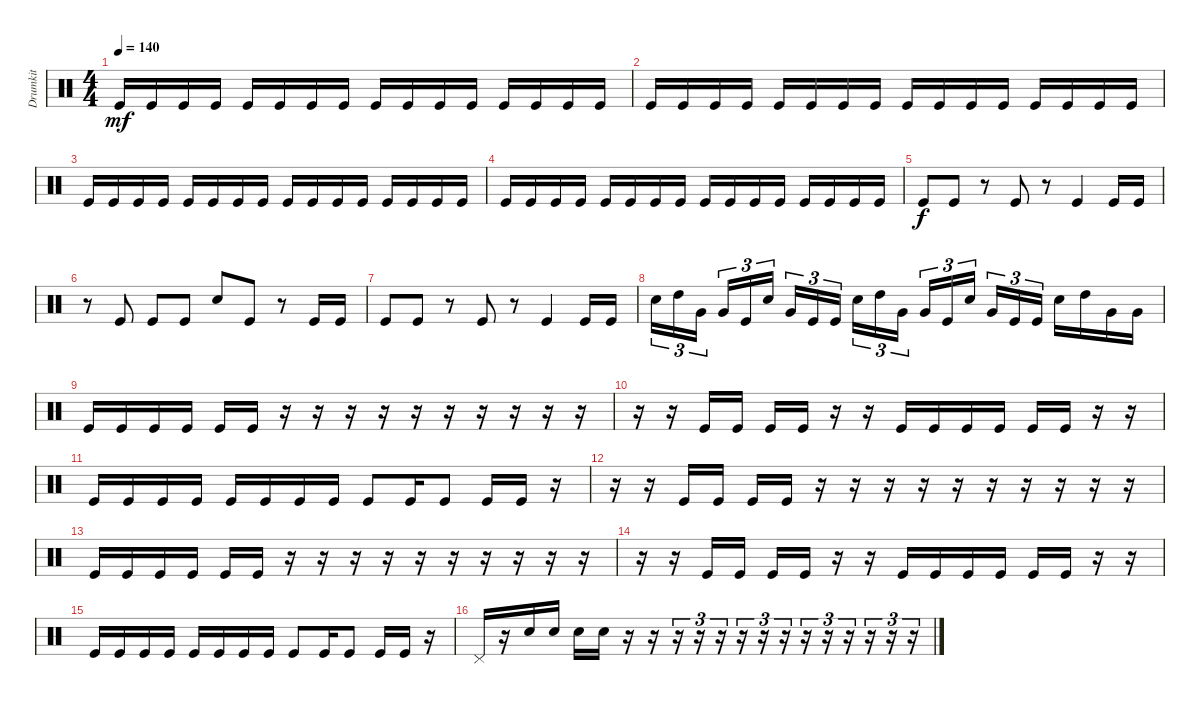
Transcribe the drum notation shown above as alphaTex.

\track ("Drumkit" "Drumkit") {instrument percussion}
\staff {score}
\articulation defaults
\ts (4 4)
\tempo 140
\clef neutral
\ks c "Kick (hit)".16{dy mf} "Kick (hit)".16 "Kick (hit)".16 "Kick (hit)".16 "Kick (hit)".16 "Kick (hit)".16 "Kick (hit)".16 "Kick (hit)".16 "Kick (hit)".16 "Kick (hit)".16 "Kick (hit)".16 "Kick (hit)".16 "Kick (hit)".16 "Kick (hit)".16 "Kick (hit)".16 "Kick (hit)".16
|
"Kick (hit)".16 "Kick (hit)".16 "Kick (hit)".16 "Kick (hit)".16 "Kick (hit)".16 "Kick (hit)".16 "Kick (hit)".16 "Kick (hit)".16 "Kick (hit)".16 "Kick (hit)".16 "Kick (hit)".16 "Kick (hit)".16 "Kick (hit)".16 "Kick (hit)".16 "Kick (hit)".16 "Kick (hit)".16 |
"Kick (hit)".16 "Kick (hit)".16 "Kick (hit)".16 "Kick (hit)".16 "Kick (hit)".16 "Kick (hit)".16 "Kick (hit)".16 "Kick (hit)".16 "Kick (hit)".16 "Kick (hit)".16 "Kick (hit)".16 "Kick (hit)".16 "Kick (hit)".16 "Kick (hit)".16 "Kick (hit)".16 "Kick (hit)".16 |
"Kick (hit)".16 "Kick (hit)".16 "Kick (hit)".16 "Kick (hit)".16 "Kick (hit)".16 "Kick (hit)".16 "Kick (hit)".16 "Kick (hit)".16 "Kick (hit)".16 "Kick (hit)".16 "Kick (hit)".16 "Kick (hit)".16 "Kick (hit)".16 "Kick (hit)".16 "Kick (hit)".16 "Kick (hit)".16 |
"Kick (hit)".8{dy f} "Kick (hit)".8 r.8 "Kick (hit)".8 r.8 "Kick (hit)".4 "Kick (hit)".16 "Kick (hit)".16 |
r.8 "Kick (hit)".8 "Kick (hit)".8 "Kick (hit)".8 "Snare (hit) 2".8 "Kick (hit)".8 r.8 "Kick (hit)".16 "Kick (hit)".16 |
"Kick (hit)".8 "Kick (hit)".8 r.8 "Kick (hit)".8 r.8 "Kick (hit)".4 "Kick (hit)".16 "Kick (hit)".16 |
"Snare (hit) 2".16{tu (3 2)} "High Tom (hit)".16{tu (3 2)} "Very Low Tom (hit)".16{tu (3 2)} "Very Low Tom (hit)".16{tu (3 2)} "Kick (hit)".16{tu (3 2)} "Snare (hit) 2".16{tu (3 2)} "Very Low Tom (hit)".16{tu (3 2)} "Kick (hit)".16{tu (3 2)} "Kick (hit)".16{tu (3 2)} "Snare (hit) 2".16{tu (3 2)} "High Tom (hit)".16{tu (3 2)} "Very Low Tom (hit)".16{tu (3 2)} "Very Low Tom (hit)".16{tu (3 2)} "Kick (hit)".16{tu (3 2)} "Snare (hit) 2".16{tu (3 2)} "Very Low Tom (hit)".16{tu (3 2)} "Kick (hit)".16{tu (3 2)} "Kick (hit)".16{tu (3 2)} "Snare (hit) 2".16 "High Tom (hit)".16 "Very Low Tom (hit)".16 "Very Low Tom (hit)".16 |
"Kick (hit)".16 "Kick (hit)".16 "Kick (hit)".16 "Kick (hit)".16 "Kick (hit)".16 "Kick (hit)".16 r.16 r.16 r.16 r.16 r.16 r.16 r.16 r.16 r.16 r.16 |
r.16 r.16 "Kick (hit)".16 "Kick (hit)".16 "Kick (hit)".16 "Kick (hit)".16 r.16 r.16 "Kick (hit)".16 "Kick (hit)".16 "Kick (hit)".16 "Kick (hit)".16 "Kick (hit)".16 "Kick (hit)".16 r.16 r.16 |
"Kick (hit)".16 "Kick (hit)".16 "Kick (hit)".16 "Kick (hit)".16 "Kick (hit)".16 "Kick (hit)".16 "Kick (hit)".16 "Kick (hit)".16 "Kick (hit)".8 "Kick (hit)".16 "Kick (hit)".8 "Kick (hit)".16 "Kick (hit)".16 r.16 |
r.16 r.16 "Kick (hit)".16 "Kick (hit)".16 "Kick (hit)".16 "Kick (hit)".16 r.16 r.16 r.16 r.16 r.16 r.16 r.16 r.16 r.16 r.16 |
"Kick (hit)".16 "Kick (hit)".16 "Kick (hit)".16 "Kick (hit)".16 "Kick (hit)".16 "Kick (hit)".16 r.16 r.16 r.16 r.16 r.16 r.16 r.16 r.16 r.16 r.16 |
r.16 r.16 "Kick (hit)".16 "Kick (hit)".16 "Kick (hit)".16 "Kick (hit)".16 r.16 r.16 "Kick (hit)".16 "Kick (hit)".16 "Kick (hit)".16 "Kick (hit)".16 "Kick (hit)".16 "Kick (hit)".16 r.16 r.16 |
"Kick (hit)".16 "Kick (hit)".16 "Kick (hit)".16 "Kick (hit)".16 "Kick (hit)".16 "Kick (hit)".16 "Kick (hit)".16 "Kick (hit)".16 "Kick (hit)".8 "Kick (hit)".16 "Kick (hit)".8 "Kick (hit)".16 "Kick (hit)".16 r.16 |
"Pedal Hi-Hat (hit)".16 r.16 "Snare (hit) 2".16 "Snare (hit) 2".16 "Snare (hit) 2".16 "Snare (hit) 2".16 r.16 r.16 r.16{tu (3 2)} r.16{tu (3 2)} r.16{tu (3 2)} r.16{tu (3 2)} r.16{tu (3 2)} r.16{tu (3 2)} r.16{tu (3 2)} r.16{tu (3 2)} r.16{tu (3 2)} r.16{tu (3 2)} r.16{tu (3 2)} r.16{tu (3 2)}
